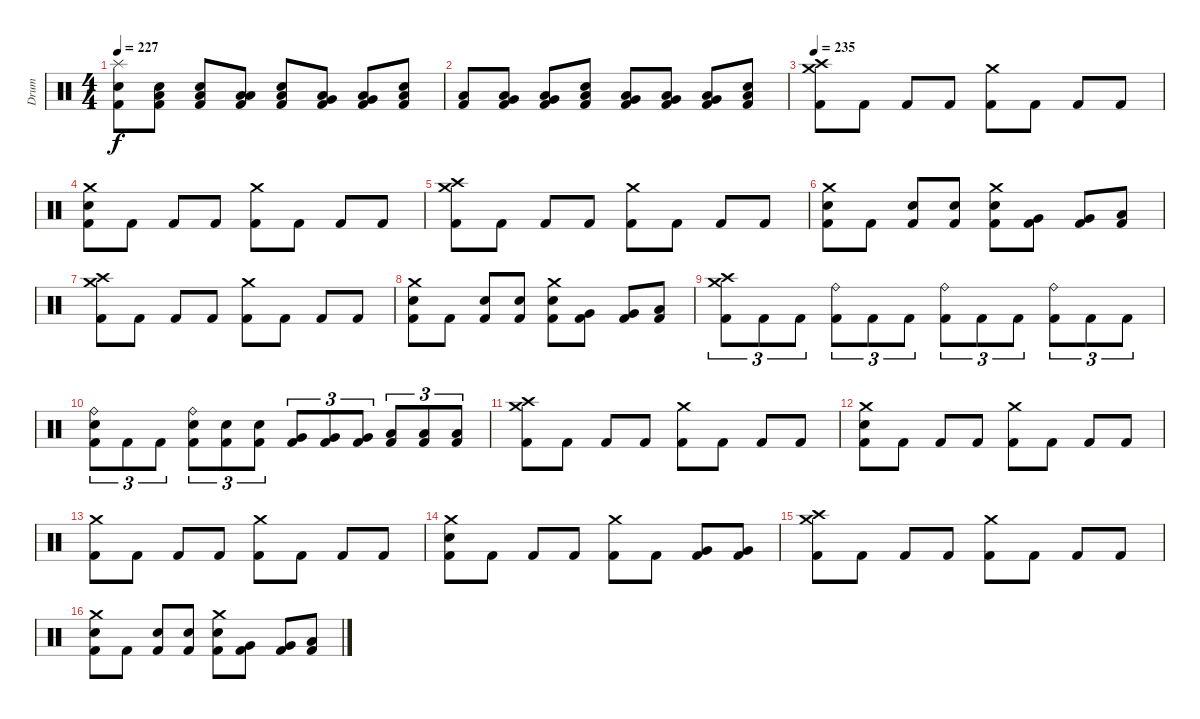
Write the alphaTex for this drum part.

\track ("Drum" "Drum") {instrument percussion}
\staff {score}
\articulation defaults
\ts (4 4)
\tempo 227
\clef neutral
\ks c
("Splash (hit)" "Electric Snare (hit)" "Kick (hit) 2").8{dy f} ("Low Tom (hit)" "Electric Snare (hit)" "Kick (hit) 2").8 ("Low Tom (hit)" "Electric Snare (hit)" "Kick (hit) 2").8 ("Low Floor Tom (hit)" "Low Tom (hit)" "Kick (hit) 2").8 ("Low Tom (hit)" "Electric Snare (hit)" "Kick (hit) 2").8 ("Low Tom (hit)" "Very Low Tom (hit)" "Kick (hit) 2").8 ("Low Tom (hit)" "Very Low Tom (hit)" "Kick (hit) 2").8 ("Low Floor Tom (hit)" "Electric Snare (hit)" "Kick (hit) 2").8 |
("Low Floor Tom (hit)" "Kick (hit) 2").8 ("Low Tom (hit)" "Very Low Tom (hit)" "Kick (hit) 2").8 ("Low Tom (hit)" "Very Low Tom (hit)" "Kick (hit) 2").8 ("Low Floor Tom (hit)" "Electric Snare (hit)" "Kick (hit) 2").8 ("Low Tom (hit)" "Very Low Tom (hit)" "Kick (hit) 2").8 ("Low Tom (hit)" "Very Low Tom (hit)" "Kick (hit) 2").8 ("Low Tom (hit)" "Very Low Tom (hit)" "Kick (hit) 2").8 ("Low Floor Tom (hit)" "Electric Snare (hit)" "Kick (hit) 2").8 |
\tempo 235
("Crash medium (hit)" "Crash high (hit)" "Kick (hit) 2").8 "Kick (hit) 2".8 "Kick (hit) 2".8 "Kick (hit) 2".8 ("Crash medium (hit)" "Kick (hit) 2").8 "Kick (hit) 2".8 "Kick (hit) 2".8 "Kick (hit) 2".8 |
("Crash medium (hit)" "Electric Snare (hit)" "Kick (hit) 2").8 "Kick (hit) 2".8 "Kick (hit) 2".8 "Kick (hit) 2".8 ("Crash medium (hit)" "Kick (hit) 2").8 "Kick (hit) 2".8 "Kick (hit) 2".8 "Kick (hit) 2".8 |
("Crash medium (hit)" "Crash high (hit)" "Kick (hit) 2").8 "Kick (hit) 2".8 "Kick (hit) 2".8 "Kick (hit) 2".8 ("Crash medium (hit)" "Kick (hit) 2").8 "Kick (hit) 2".8 "Kick (hit) 2".8 "Kick (hit) 2".8 |
("Crash medium (hit)" "Electric Snare (hit)" "Kick (hit) 2").8 "Kick (hit) 2".8 ("Electric Snare (hit)" "Kick (hit) 2").8 ("Electric Snare (hit)" "Kick (hit) 2").8 ("Crash medium (hit)" "Electric Snare (hit)" "Kick (hit) 2").8 ("Very Low Tom (hit)" "Kick (hit) 2").8 ("Very Low Tom (hit)" "Kick (hit) 2").8 ("Low Tom (hit)" "Kick (hit) 2").8 |
("Crash medium (hit)" "Crash high (hit)" "Kick (hit) 2").8 "Kick (hit) 2".8 "Kick (hit) 2".8 "Kick (hit) 2".8 ("Crash medium (hit)" "Kick (hit) 2").8 "Kick (hit) 2".8 "Kick (hit) 2".8 "Kick (hit) 2".8 |
("Crash medium (hit)" "Electric Snare (hit)" "Kick (hit) 2").8 "Kick (hit) 2".8 ("Electric Snare (hit)" "Kick (hit) 2").8 ("Electric Snare (hit)" "Kick (hit) 2").8 ("Crash medium (hit)" "Electric Snare (hit)" "Kick (hit) 2").8 ("Very Low Tom (hit)" "Kick (hit) 2").8 ("Very Low Tom (hit)" "Kick (hit) 2").8 ("Low Tom (hit)" "Kick (hit) 2").8 |
("Crash medium (hit)" "Crash high (hit)" "Kick (hit) 2").8{tu (3 2)} "Kick (hit) 2".8{tu (3 2)} "Kick (hit) 2".8{tu (3 2)} ("Ride (bell)" "Kick (hit) 2").8{tu (3 2)} "Kick (hit) 2".8{tu (3 2)} "Kick (hit) 2".8{tu (3 2)} ("Ride (bell)" "Kick (hit) 2").8{tu (3 2)} "Kick (hit) 2".8{tu (3 2)} "Kick (hit) 2".8{tu (3 2)} ("Ride (bell)" "Kick (hit) 2").8{tu (3 2)} "Kick (hit) 2".8{tu (3 2)} "Kick (hit) 2".8{tu (3 2)} |
("Ride (bell)" "Electric Snare (hit)" "Kick (hit) 2").8{tu (3 2)} "Kick (hit) 2".8{tu (3 2)} "Kick (hit) 2".8{tu (3 2)} ("Ride (bell)" "Electric Snare (hit)" "Kick (hit) 2").8{tu (3 2)} ("Electric Snare (hit)" "Kick (hit) 2").8{tu (3 2)} ("Electric Snare (hit)" "Kick (hit) 2").8{tu (3 2)} ("Very Low Tom (hit)" "Kick (hit) 2").8{tu (3 2)} ("Very Low Tom (hit)" "Kick (hit) 2").8{tu (3 2)} ("Very Low Tom (hit)" "Kick (hit) 2").8{tu (3 2)} ("Low Tom (hit)" "Kick (hit) 2").8{tu (3 2)} ("Low Tom (hit)" "Kick (hit) 2").8{tu (3 2)} ("Low Tom (hit)" "Kick (hit) 2").8{tu (3 2)} |
("Crash medium (hit)" "Crash high (hit)" "Kick (hit) 2").8 "Kick (hit) 2".8 "Kick (hit) 2".8 "Kick (hit) 2".8 ("Crash medium (hit)" "Kick (hit) 2").8 "Kick (hit) 2".8 "Kick (hit) 2".8 "Kick (hit) 2".8 |
("Crash medium (hit)" "Electric Snare (hit)" "Kick (hit) 2").8 "Kick (hit) 2".8 "Kick (hit) 2".8 "Kick (hit) 2".8 ("Crash medium (hit)" "Kick (hit) 2").8 "Kick (hit) 2".8 "Kick (hit) 2".8 "Kick (hit) 2".8 |
("Crash medium (hit)" "Kick (hit) 2").8 "Kick (hit) 2".8 "Kick (hit) 2".8 "Kick (hit) 2".8 ("Crash medium (hit)" "Kick (hit) 2").8 "Kick (hit) 2".8 "Kick (hit) 2".8 "Kick (hit) 2".8 |
("Crash medium (hit)" "Electric Snare (hit)" "Kick (hit) 2").8 "Kick (hit) 2".8 "Kick (hit) 2".8 "Kick (hit) 2".8 ("Crash medium (hit)" "Kick (hit) 2").8 "Kick (hit) 2".8 ("Very Low Tom (hit)" "Kick (hit) 2").8 ("Very Low Tom (hit)" "Kick (hit) 2").8 |
("Crash medium (hit)" "Crash high (hit)" "Kick (hit) 2").8 "Kick (hit) 2".8 "Kick (hit) 2".8 "Kick (hit) 2".8 ("Crash medium (hit)" "Kick (hit) 2").8 "Kick (hit) 2".8 "Kick (hit) 2".8 "Kick (hit) 2".8 |
("Crash medium (hit)" "Electric Snare (hit)" "Kick (hit) 2").8 "Kick (hit) 2".8 ("Electric Snare (hit)" "Kick (hit) 2").8 ("Electric Snare (hit)" "Kick (hit) 2").8 ("Crash medium (hit)" "Electric Snare (hit)" "Kick (hit) 2").8 ("Very Low Tom (hit)" "Kick (hit) 2").8 ("Very Low Tom (hit)" "Kick (hit) 2").8 ("Low Tom (hit)" "Kick (hit) 2").8
